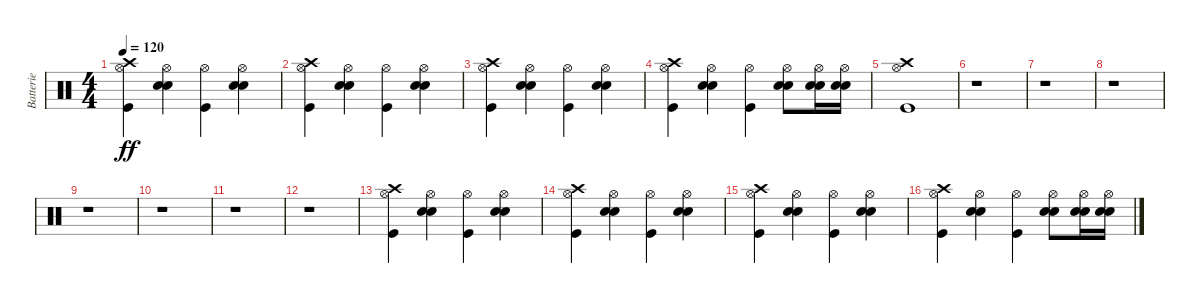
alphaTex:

\track ("Batterie" "Batterie") {instrument percussion}
\staff {score}
\articulation defaults
\ts (4 4)
\tempo 120
\clef neutral
\ks c
("Kick (hit)" "Hi-Hat (open)" "Crash high (hit)").4{dy ff} ("Electric Snare (hit)" "Electric Snare (hit)" "Hi-Hat (open)").4 ("Kick (hit)" "Hi-Hat (open)").4 ("Electric Snare (hit)" "Electric Snare (hit)" "Hi-Hat (open)").4 |
("Kick (hit)" "Hi-Hat (open)" "Crash high (hit)").4 ("Electric Snare (hit)" "Electric Snare (hit)" "Hi-Hat (open)").4 ("Kick (hit)" "Hi-Hat (open)").4 ("Electric Snare (hit)" "Electric Snare (hit)" "Hi-Hat (open)").4 |
("Kick (hit)" "Hi-Hat (open)" "Crash high (hit)").4 ("Electric Snare (hit)" "Electric Snare (hit)" "Hi-Hat (open)").4 ("Kick (hit)" "Hi-Hat (open)").4 ("Electric Snare (hit)" "Electric Snare (hit)" "Hi-Hat (open)").4 |
("Kick (hit)" "Hi-Hat (open)" "Crash high (hit)").4 ("Electric Snare (hit)" "Electric Snare (hit)" "Hi-Hat (open)").4 ("Kick (hit)" "Hi-Hat (open)").4 ("Electric Snare (hit)" "Electric Snare (hit)" "Hi-Hat (open)").8 ("Electric Snare (hit)" "Electric Snare (hit)" "Hi-Hat (open)").16 ("Electric Snare (hit)" "Electric Snare (hit)" "Hi-Hat (open)").16 |
("Kick (hit)" "Hi-Hat (open)" "Crash high (hit)").1 |
r.1 |
r.1 |
r.1 |
r.1 |
r.1 |
r.1 |
r.1 |
("Kick (hit)" "Hi-Hat (open)" "Crash high (hit)").4 ("Electric Snare (hit)" "Electric Snare (hit)" "Hi-Hat (open)").4 ("Kick (hit)" "Hi-Hat (open)").4 ("Electric Snare (hit)" "Electric Snare (hit)" "Hi-Hat (open)").4 |
("Kick (hit)" "Hi-Hat (open)" "Crash high (hit)").4 ("Electric Snare (hit)" "Electric Snare (hit)" "Hi-Hat (open)").4 ("Kick (hit)" "Hi-Hat (open)").4 ("Electric Snare (hit)" "Electric Snare (hit)" "Hi-Hat (open)").4 |
("Kick (hit)" "Hi-Hat (open)" "Crash high (hit)").4 ("Electric Snare (hit)" "Electric Snare (hit)" "Hi-Hat (open)").4 ("Kick (hit)" "Hi-Hat (open)").4 ("Electric Snare (hit)" "Electric Snare (hit)" "Hi-Hat (open)").4 |
("Kick (hit)" "Hi-Hat (open)" "Crash high (hit)").4 ("Electric Snare (hit)" "Electric Snare (hit)" "Hi-Hat (open)").4 ("Kick (hit)" "Hi-Hat (open)").4 ("Electric Snare (hit)" "Electric Snare (hit)" "Hi-Hat (open)").8 ("Electric Snare (hit)" "Electric Snare (hit)" "Hi-Hat (open)").16 ("Electric Snare (hit)" "Electric Snare (hit)" "Hi-Hat (open)").16
